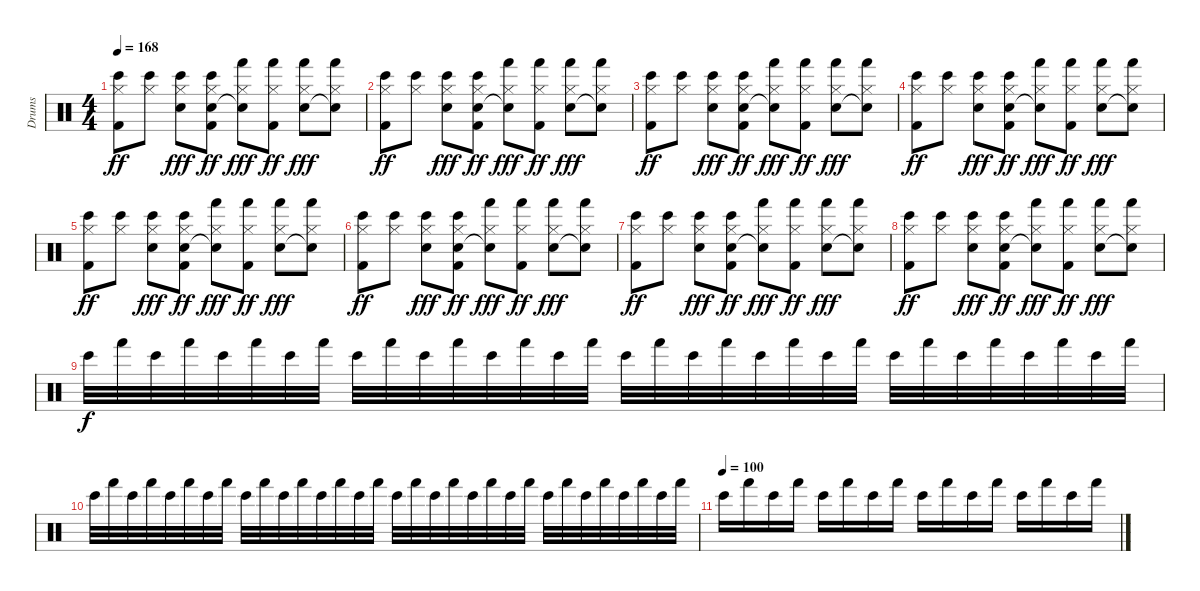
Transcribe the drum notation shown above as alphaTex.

\track ("Drums" "Drums") {instrument percussion}
\staff {score}
\articulation defaults
\ts (4 4)
\tempo 168
\clef neutral
\ks c
("Bongo High (hit)" "Hi-Hat (closed)" "Kick (hit) 2").8{dy ff} ("Bongo High (hit)" "Hi-Hat (closed)").8 ("Bongo High (hit)" "Hi-Hat (closed)" "Electric Snare (hit)").8{dy fff} ("Bongo High (hit)" "Hi-Hat (closed)" "Electric Snare (hit)" "Kick (hit) 2").8{dy ff} ("Hand (hit)" "Hi-Hat (closed)" "Electric Snare (hit)"{t}).8{dy fff} ("Hand (hit)" "Hi-Hat (closed)" "Kick (hit) 2").8{dy ff} ("Hand (hit)" "Hi-Hat (closed)" "Electric Snare (hit)").8{dy fff} ("Hand (hit)" "Hi-Hat (closed)" "Snare (hit)"{t}).8 |
("Bongo High (hit)" "Hi-Hat (closed)" "Kick (hit) 2").8{dy ff} ("Bongo High (hit)" "Hi-Hat (closed)").8 ("Bongo High (hit)" "Hi-Hat (closed)" "Electric Snare (hit)").8{dy fff} ("Bongo High (hit)" "Hi-Hat (closed)" "Electric Snare (hit)" "Kick (hit) 2").8{dy ff} ("Hand (hit)" "Hi-Hat (closed)" "Electric Snare (hit)"{t}).8{dy fff} ("Hand (hit)" "Hi-Hat (closed)" "Kick (hit) 2").8{dy ff} ("Hand (hit)" "Hi-Hat (closed)" "Electric Snare (hit)").8{dy fff} ("Hand (hit)" "Hi-Hat (closed)" "Snare (hit)"{t}).8 |
("Bongo High (hit)" "Hi-Hat (closed)" "Kick (hit) 2").8{dy ff} ("Bongo High (hit)" "Hi-Hat (closed)").8 ("Bongo High (hit)" "Hi-Hat (closed)" "Electric Snare (hit)").8{dy fff} ("Bongo High (hit)" "Hi-Hat (closed)" "Electric Snare (hit)" "Kick (hit) 2").8{dy ff} ("Hand (hit)" "Hi-Hat (closed)" "Electric Snare (hit)"{t}).8{dy fff} ("Hand (hit)" "Hi-Hat (closed)" "Kick (hit) 2").8{dy ff} ("Hand (hit)" "Hi-Hat (closed)" "Electric Snare (hit)").8{dy fff} ("Hand (hit)" "Hi-Hat (closed)" "Snare (hit)"{t}).8 |
("Bongo High (hit)" "Hi-Hat (closed)" "Kick (hit) 2").8{dy ff} ("Bongo High (hit)" "Hi-Hat (closed)").8 ("Bongo High (hit)" "Hi-Hat (closed)" "Electric Snare (hit)").8{dy fff} ("Bongo High (hit)" "Hi-Hat (closed)" "Electric Snare (hit)" "Kick (hit) 2").8{dy ff} ("Hand (hit)" "Hi-Hat (closed)" "Electric Snare (hit)"{t}).8{dy fff} ("Hand (hit)" "Hi-Hat (closed)" "Kick (hit) 2").8{dy ff} ("Hand (hit)" "Hi-Hat (closed)" "Electric Snare (hit)").8{dy fff} ("Hand (hit)" "Hi-Hat (closed)" "Snare (hit)"{t}).8 |
("Bongo High (hit)" "Hi-Hat (closed)" "Kick (hit) 2").8{dy ff} ("Bongo High (hit)" "Hi-Hat (closed)").8 ("Bongo High (hit)" "Hi-Hat (closed)" "Electric Snare (hit)").8{dy fff} ("Bongo High (hit)" "Hi-Hat (closed)" "Electric Snare (hit)" "Kick (hit) 2").8{dy ff} ("Hand (hit)" "Hi-Hat (closed)" "Electric Snare (hit)"{t}).8{dy fff} ("Hand (hit)" "Hi-Hat (closed)" "Kick (hit) 2").8{dy ff} ("Hand (hit)" "Hi-Hat (closed)" "Electric Snare (hit)").8{dy fff} ("Hand (hit)" "Hi-Hat (closed)" "Snare (hit)"{t}).8 |
("Bongo High (hit)" "Hi-Hat (closed)" "Kick (hit) 2").8{dy ff} ("Bongo High (hit)" "Hi-Hat (closed)").8 ("Bongo High (hit)" "Hi-Hat (closed)" "Electric Snare (hit)").8{dy fff} ("Bongo High (hit)" "Hi-Hat (closed)" "Electric Snare (hit)" "Kick (hit) 2").8{dy ff} ("Hand (hit)" "Hi-Hat (closed)" "Electric Snare (hit)"{t}).8{dy fff} ("Hand (hit)" "Hi-Hat (closed)" "Kick (hit) 2").8{dy ff} ("Hand (hit)" "Hi-Hat (closed)" "Electric Snare (hit)").8{dy fff} ("Hand (hit)" "Hi-Hat (closed)" "Snare (hit)"{t}).8 |
("Bongo High (hit)" "Hi-Hat (closed)" "Kick (hit) 2").8{dy ff} ("Bongo High (hit)" "Hi-Hat (closed)").8 ("Bongo High (hit)" "Hi-Hat (closed)" "Electric Snare (hit)").8{dy fff} ("Bongo High (hit)" "Hi-Hat (closed)" "Electric Snare (hit)" "Kick (hit) 2").8{dy ff} ("Hand (hit)" "Hi-Hat (closed)" "Electric Snare (hit)"{t}).8{dy fff} ("Hand (hit)" "Hi-Hat (closed)" "Kick (hit) 2").8{dy ff} ("Hand (hit)" "Hi-Hat (closed)" "Electric Snare (hit)").8{dy fff} ("Hand (hit)" "Hi-Hat (closed)" "Snare (hit)"{t}).8 |
("Bongo High (hit)" "Hi-Hat (closed)" "Kick (hit) 2").8{dy ff} ("Bongo High (hit)" "Hi-Hat (closed)").8 ("Bongo High (hit)" "Hi-Hat (closed)" "Electric Snare (hit)").8{dy fff} ("Bongo High (hit)" "Hi-Hat (closed)" "Electric Snare (hit)" "Kick (hit) 2").8{dy ff} ("Hand (hit)" "Hi-Hat (closed)" "Electric Snare (hit)"{t}).8{dy fff} ("Hand (hit)" "Hi-Hat (closed)" "Kick (hit) 2").8{dy ff} ("Hand (hit)" "Hi-Hat (closed)" "Electric Snare (hit)").8{dy fff} ("Hand (hit)" "Hi-Hat (closed)" "Snare (hit)"{t}).8 |
"Bongo High (hit)".32{dy f} "Hand (hit)".32 "Bongo High (hit)".32 "Hand (hit)".32 "Bongo High (hit)".32 "Hand (hit)".32 "Bongo High (hit)".32 "Hand (hit)".32 "Bongo High (hit)".32 "Hand (hit)".32 "Bongo High (hit)".32 "Hand (hit)".32 "Bongo High (hit)".32 "Hand (hit)".32 "Bongo High (hit)".32 "Hand (hit)".32 "Bongo High (hit)".32 "Hand (hit)".32 "Bongo High (hit)".32 "Hand (hit)".32 "Bongo High (hit)".32 "Hand (hit)".32 "Bongo High (hit)".32 "Hand (hit)".32 "Bongo High (hit)".32 "Hand (hit)".32 "Bongo High (hit)".32 "Hand (hit)".32 "Bongo High (hit)".32 "Hand (hit)".32 "Bongo High (hit)".32 "Hand (hit)".32 |
"Bongo High (hit)".32 "Hand (hit)".32 "Bongo High (hit)".32 "Hand (hit)".32 "Bongo High (hit)".32 "Hand (hit)".32 "Bongo High (hit)".32 "Hand (hit)".32 "Bongo High (hit)".32 "Hand (hit)".32 "Bongo High (hit)".32 "Hand (hit)".32 "Bongo High (hit)".32 "Hand (hit)".32 "Bongo High (hit)".32 "Hand (hit)".32 "Bongo High (hit)".32 "Hand (hit)".32 "Bongo High (hit)".32 "Hand (hit)".32 "Bongo High (hit)".32 "Hand (hit)".32 "Bongo High (hit)".32 "Hand (hit)".32 "Bongo High (hit)".32 "Hand (hit)".32 "Bongo High (hit)".32 "Hand (hit)".32 "Bongo High (hit)".32 "Hand (hit)".32 "Bongo High (hit)".32 "Hand (hit)".32 |
\tempo (100)
"Bongo High (hit)".16 "Hand (hit)".16 "Bongo High (hit)".16 "Hand (hit)".16 "Bongo High (hit)".16 "Hand (hit)".16 "Bongo High (hit)".16 "Hand (hit)".16 "Bongo High (hit)".16 "Hand (hit)".16 "Bongo High (hit)".16 "Hand (hit)".16 "Bongo High (hit)".16 "Hand (hit)".16 "Bongo High (hit)".16 "Hand (hit)".16
